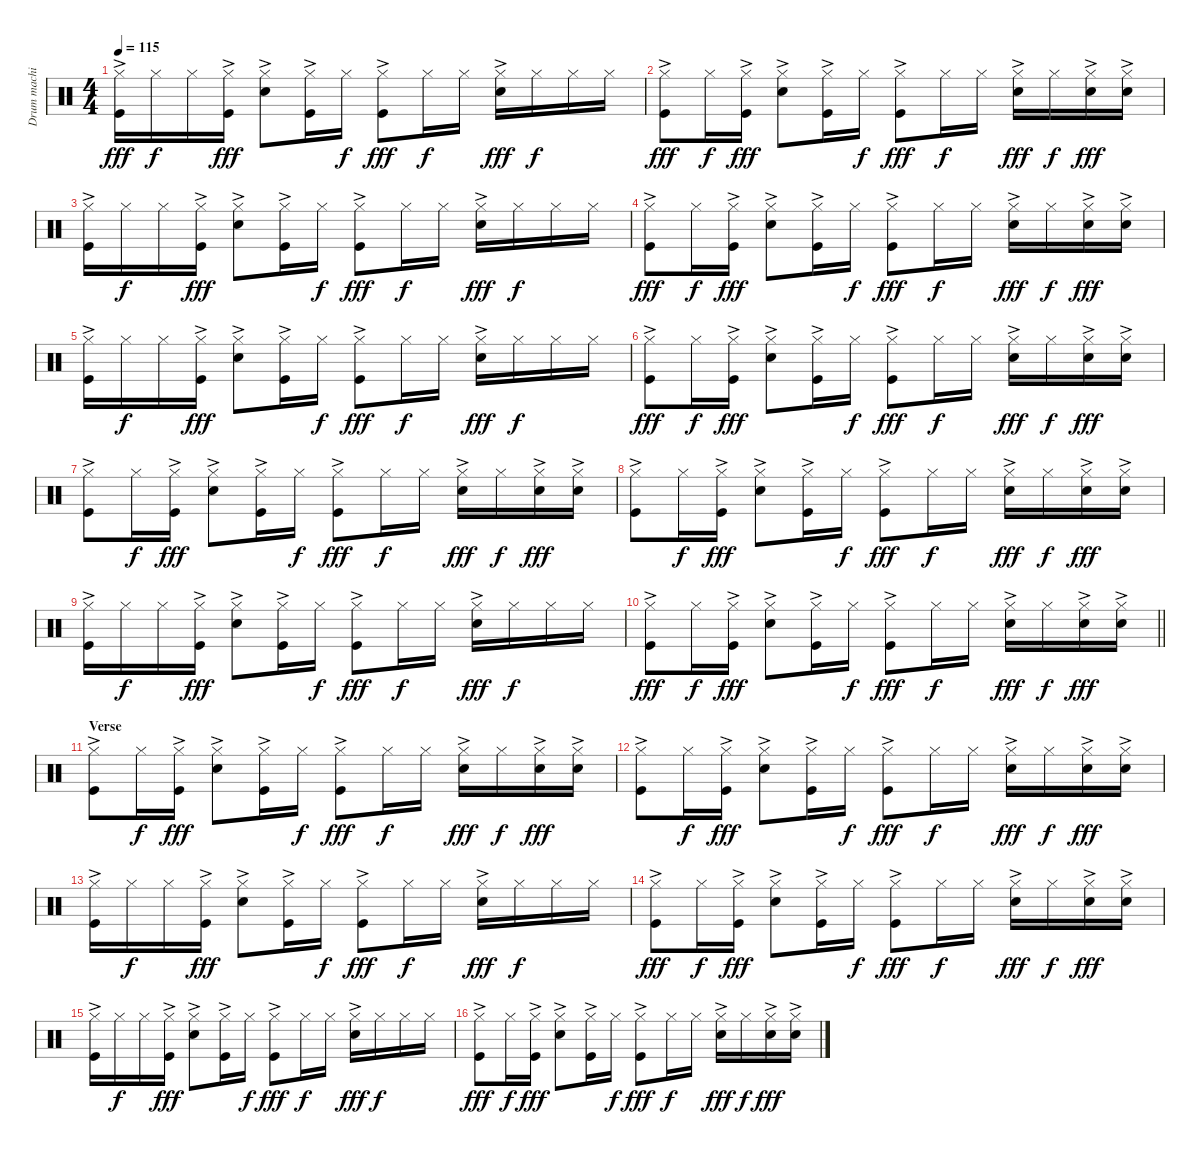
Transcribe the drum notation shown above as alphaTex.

\track ("Drum machine" "Drum machi") {instrument percussion}
\staff {score}
\articulation defaults
\ts (4 4)
\tempo 115
\clef neutral
\ks c
("Hi-Hat (closed)" "Kick (hit)"{ac}).16{dy fff} "Hi-Hat (closed)".16{dy f} "Hi-Hat (closed)".16 ("Hi-Hat (closed)" "Kick (hit)"{ac}).16{dy fff} ("Hi-Hat (closed)" "Snare (hit) 2"{ac}).8 ("Hi-Hat (closed)" "Kick (hit)"{ac}).16 "Hi-Hat (closed)".16{dy f} ("Hi-Hat (closed)" "Kick (hit)"{ac}).8{dy fff} "Hi-Hat (closed)".16{dy f} "Hi-Hat (closed)".16 ("Hi-Hat (closed)" "Snare (hit) 2"{ac}).16{dy fff} "Hi-Hat (closed)".16{dy f} "Hi-Hat (closed)".16 "Hi-Hat (closed)".16 |
("Hi-Hat (closed)" "Kick (hit)"{ac}).8{dy fff} "Hi-Hat (closed)".16{dy f} ("Hi-Hat (closed)" "Kick (hit)"{ac}).16{dy fff} ("Hi-Hat (closed)" "Snare (hit) 2"{ac}).8 ("Hi-Hat (closed)" "Kick (hit)"{ac}).16 "Hi-Hat (closed)".16{dy f} ("Hi-Hat (closed)" "Kick (hit)"{ac}).8{dy fff} "Hi-Hat (closed)".16{dy f} "Hi-Hat (closed)".16 ("Hi-Hat (closed)" "Snare (hit) 2"{ac}).16{dy fff} "Hi-Hat (closed)".16{dy f} ("Hi-Hat (closed)" "Snare (hit) 2"{ac}).16{dy fff} ("Hi-Hat (closed)" "Snare (hit) 2"{ac}).16 |
("Hi-Hat (closed)" "Kick (hit)"{ac}).16 "Hi-Hat (closed)".16{dy f} "Hi-Hat (closed)".16 ("Hi-Hat (closed)" "Kick (hit)"{ac}).16{dy fff} ("Hi-Hat (closed)" "Snare (hit) 2"{ac}).8 ("Hi-Hat (closed)" "Kick (hit)"{ac}).16 "Hi-Hat (closed)".16{dy f} ("Hi-Hat (closed)" "Kick (hit)"{ac}).8{dy fff} "Hi-Hat (closed)".16{dy f} "Hi-Hat (closed)".16 ("Hi-Hat (closed)" "Snare (hit) 2"{ac}).16{dy fff} "Hi-Hat (closed)".16{dy f} "Hi-Hat (closed)".16 "Hi-Hat (closed)".16 |
("Hi-Hat (closed)" "Kick (hit)"{ac}).8{dy fff} "Hi-Hat (closed)".16{dy f} ("Hi-Hat (closed)" "Kick (hit)"{ac}).16{dy fff} ("Hi-Hat (closed)" "Snare (hit) 2"{ac}).8 ("Hi-Hat (closed)" "Kick (hit)"{ac}).16 "Hi-Hat (closed)".16{dy f} ("Hi-Hat (closed)" "Kick (hit)"{ac}).8{dy fff} "Hi-Hat (closed)".16{dy f} "Hi-Hat (closed)".16 ("Hi-Hat (closed)" "Snare (hit) 2"{ac}).16{dy fff} "Hi-Hat (closed)".16{dy f} ("Hi-Hat (closed)" "Snare (hit) 2"{ac}).16{dy fff} ("Hi-Hat (closed)" "Snare (hit) 2"{ac}).16 |
("Hi-Hat (closed)" "Kick (hit)"{ac}).16 "Hi-Hat (closed)".16{dy f} "Hi-Hat (closed)".16 ("Hi-Hat (closed)" "Kick (hit)"{ac}).16{dy fff} ("Hi-Hat (closed)" "Snare (hit) 2"{ac}).8 ("Hi-Hat (closed)" "Kick (hit)"{ac}).16 "Hi-Hat (closed)".16{dy f} ("Hi-Hat (closed)" "Kick (hit)"{ac}).8{dy fff} "Hi-Hat (closed)".16{dy f} "Hi-Hat (closed)".16 ("Hi-Hat (closed)" "Snare (hit) 2"{ac}).16{dy fff} "Hi-Hat (closed)".16{dy f} "Hi-Hat (closed)".16 "Hi-Hat (closed)".16 |
("Hi-Hat (closed)" "Kick (hit)"{ac}).8{dy fff} "Hi-Hat (closed)".16{dy f} ("Hi-Hat (closed)" "Kick (hit)"{ac}).16{dy fff} ("Hi-Hat (closed)" "Snare (hit) 2"{ac}).8 ("Hi-Hat (closed)" "Kick (hit)"{ac}).16 "Hi-Hat (closed)".16{dy f} ("Hi-Hat (closed)" "Kick (hit)"{ac}).8{dy fff} "Hi-Hat (closed)".16{dy f} "Hi-Hat (closed)".16 ("Hi-Hat (closed)" "Snare (hit) 2"{ac}).16{dy fff} "Hi-Hat (closed)".16{dy f} ("Hi-Hat (closed)" "Snare (hit) 2"{ac}).16{dy fff} ("Hi-Hat (closed)" "Snare (hit) 2"{ac}).16 |
("Hi-Hat (closed)" "Kick (hit)"{ac}).8 "Hi-Hat (closed)".16{dy f} ("Hi-Hat (closed)" "Kick (hit)"{ac}).16{dy fff} ("Hi-Hat (closed)" "Snare (hit) 2"{ac}).8 ("Hi-Hat (closed)" "Kick (hit)"{ac}).16 "Hi-Hat (closed)".16{dy f} ("Hi-Hat (closed)" "Kick (hit)"{ac}).8{dy fff} "Hi-Hat (closed)".16{dy f} "Hi-Hat (closed)".16 ("Hi-Hat (closed)" "Snare (hit) 2"{ac}).16{dy fff} "Hi-Hat (closed)".16{dy f} ("Hi-Hat (closed)" "Snare (hit) 2"{ac}).16{dy fff} ("Hi-Hat (closed)" "Snare (hit) 2"{ac}).16 |
("Hi-Hat (closed)" "Kick (hit)"{ac}).8 "Hi-Hat (closed)".16{dy f} ("Hi-Hat (closed)" "Kick (hit)"{ac}).16{dy fff} ("Hi-Hat (closed)" "Snare (hit) 2"{ac}).8 ("Hi-Hat (closed)" "Kick (hit)"{ac}).16 "Hi-Hat (closed)".16{dy f} ("Hi-Hat (closed)" "Kick (hit)"{ac}).8{dy fff} "Hi-Hat (closed)".16{dy f} "Hi-Hat (closed)".16 ("Hi-Hat (closed)" "Snare (hit) 2"{ac}).16{dy fff} "Hi-Hat (closed)".16{dy f} ("Hi-Hat (closed)" "Snare (hit) 2"{ac}).16{dy fff} ("Hi-Hat (closed)" "Snare (hit) 2"{ac}).16 |
("Hi-Hat (closed)" "Kick (hit)"{ac}).16 "Hi-Hat (closed)".16{dy f} "Hi-Hat (closed)".16 ("Hi-Hat (closed)" "Kick (hit)"{ac}).16{dy fff} ("Hi-Hat (closed)" "Snare (hit) 2"{ac}).8 ("Hi-Hat (closed)" "Kick (hit)"{ac}).16 "Hi-Hat (closed)".16{dy f} ("Hi-Hat (closed)" "Kick (hit)"{ac}).8{dy fff} "Hi-Hat (closed)".16{dy f} "Hi-Hat (closed)".16 ("Hi-Hat (closed)" "Snare (hit) 2"{ac}).16{dy fff} "Hi-Hat (closed)".16{dy f} "Hi-Hat (closed)".16 "Hi-Hat (closed)".16 |
\barLineRight lightlight
("Hi-Hat (closed)" "Kick (hit)"{ac}).8{dy fff} "Hi-Hat (closed)".16{dy f} ("Hi-Hat (closed)" "Kick (hit)"{ac}).16{dy fff} ("Hi-Hat (closed)" "Snare (hit) 2"{ac}).8 ("Hi-Hat (closed)" "Kick (hit)"{ac}).16 "Hi-Hat (closed)".16{dy f} ("Hi-Hat (closed)" "Kick (hit)"{ac}).8{dy fff} "Hi-Hat (closed)".16{dy f} "Hi-Hat (closed)".16 ("Hi-Hat (closed)" "Snare (hit) 2"{ac}).16{dy fff} "Hi-Hat (closed)".16{dy f} ("Hi-Hat (closed)" "Snare (hit) 2"{ac}).16{dy fff} ("Hi-Hat (closed)" "Snare (hit) 2"{ac}).16 |
\section ("" "Verse")
("Hi-Hat (closed)" "Kick (hit)"{ac}).8 "Hi-Hat (closed)".16{dy f} ("Hi-Hat (closed)" "Kick (hit)"{ac}).16{dy fff} ("Hi-Hat (closed)" "Snare (hit) 2"{ac}).8 ("Hi-Hat (closed)" "Kick (hit)"{ac}).16 "Hi-Hat (closed)".16{dy f} ("Hi-Hat (closed)" "Kick (hit)"{ac}).8{dy fff} "Hi-Hat (closed)".16{dy f} "Hi-Hat (closed)".16 ("Hi-Hat (closed)" "Snare (hit) 2"{ac}).16{dy fff} "Hi-Hat (closed)".16{dy f} ("Hi-Hat (closed)" "Snare (hit) 2"{ac}).16{dy fff} ("Hi-Hat (closed)" "Snare (hit) 2"{ac}).16 |
("Hi-Hat (closed)" "Kick (hit)"{ac}).8 "Hi-Hat (closed)".16{dy f} ("Hi-Hat (closed)" "Kick (hit)"{ac}).16{dy fff} ("Hi-Hat (closed)" "Snare (hit) 2"{ac}).8 ("Hi-Hat (closed)" "Kick (hit)"{ac}).16 "Hi-Hat (closed)".16{dy f} ("Hi-Hat (closed)" "Kick (hit)"{ac}).8{dy fff} "Hi-Hat (closed)".16{dy f} "Hi-Hat (closed)".16 ("Hi-Hat (closed)" "Snare (hit) 2"{ac}).16{dy fff} "Hi-Hat (closed)".16{dy f} ("Hi-Hat (closed)" "Snare (hit) 2"{ac}).16{dy fff} ("Hi-Hat (closed)" "Snare (hit) 2"{ac}).16 |
("Hi-Hat (closed)" "Kick (hit)"{ac}).16 "Hi-Hat (closed)".16{dy f} "Hi-Hat (closed)".16 ("Hi-Hat (closed)" "Kick (hit)"{ac}).16{dy fff} ("Hi-Hat (closed)" "Snare (hit) 2"{ac}).8 ("Hi-Hat (closed)" "Kick (hit)"{ac}).16 "Hi-Hat (closed)".16{dy f} ("Hi-Hat (closed)" "Kick (hit)"{ac}).8{dy fff} "Hi-Hat (closed)".16{dy f} "Hi-Hat (closed)".16 ("Hi-Hat (closed)" "Snare (hit) 2"{ac}).16{dy fff} "Hi-Hat (closed)".16{dy f} "Hi-Hat (closed)".16 "Hi-Hat (closed)".16 |
("Hi-Hat (closed)" "Kick (hit)"{ac}).8{dy fff} "Hi-Hat (closed)".16{dy f} ("Hi-Hat (closed)" "Kick (hit)"{ac}).16{dy fff} ("Hi-Hat (closed)" "Snare (hit) 2"{ac}).8 ("Hi-Hat (closed)" "Kick (hit)"{ac}).16 "Hi-Hat (closed)".16{dy f} ("Hi-Hat (closed)" "Kick (hit)"{ac}).8{dy fff} "Hi-Hat (closed)".16{dy f} "Hi-Hat (closed)".16 ("Hi-Hat (closed)" "Snare (hit) 2"{ac}).16{dy fff} "Hi-Hat (closed)".16{dy f} ("Hi-Hat (closed)" "Snare (hit) 2"{ac}).16{dy fff} ("Hi-Hat (closed)" "Snare (hit) 2"{ac}).16 |
("Hi-Hat (closed)" "Kick (hit)"{ac}).16 "Hi-Hat (closed)".16{dy f} "Hi-Hat (closed)".16 ("Hi-Hat (closed)" "Kick (hit)"{ac}).16{dy fff} ("Hi-Hat (closed)" "Snare (hit) 2"{ac}).8 ("Hi-Hat (closed)" "Kick (hit)"{ac}).16 "Hi-Hat (closed)".16{dy f} ("Hi-Hat (closed)" "Kick (hit)"{ac}).8{dy fff} "Hi-Hat (closed)".16{dy f} "Hi-Hat (closed)".16 ("Hi-Hat (closed)" "Snare (hit) 2"{ac}).16{dy fff} "Hi-Hat (closed)".16{dy f} "Hi-Hat (closed)".16 "Hi-Hat (closed)".16 |
("Hi-Hat (closed)" "Kick (hit)"{ac}).8{dy fff} "Hi-Hat (closed)".16{dy f} ("Hi-Hat (closed)" "Kick (hit)"{ac}).16{dy fff} ("Hi-Hat (closed)" "Snare (hit) 2"{ac}).8 ("Hi-Hat (closed)" "Kick (hit)"{ac}).16 "Hi-Hat (closed)".16{dy f} ("Hi-Hat (closed)" "Kick (hit)"{ac}).8{dy fff} "Hi-Hat (closed)".16{dy f} "Hi-Hat (closed)".16 ("Hi-Hat (closed)" "Snare (hit) 2"{ac}).16{dy fff} "Hi-Hat (closed)".16{dy f} ("Hi-Hat (closed)" "Snare (hit) 2"{ac}).16{dy fff} ("Hi-Hat (closed)" "Snare (hit) 2"{ac}).16
